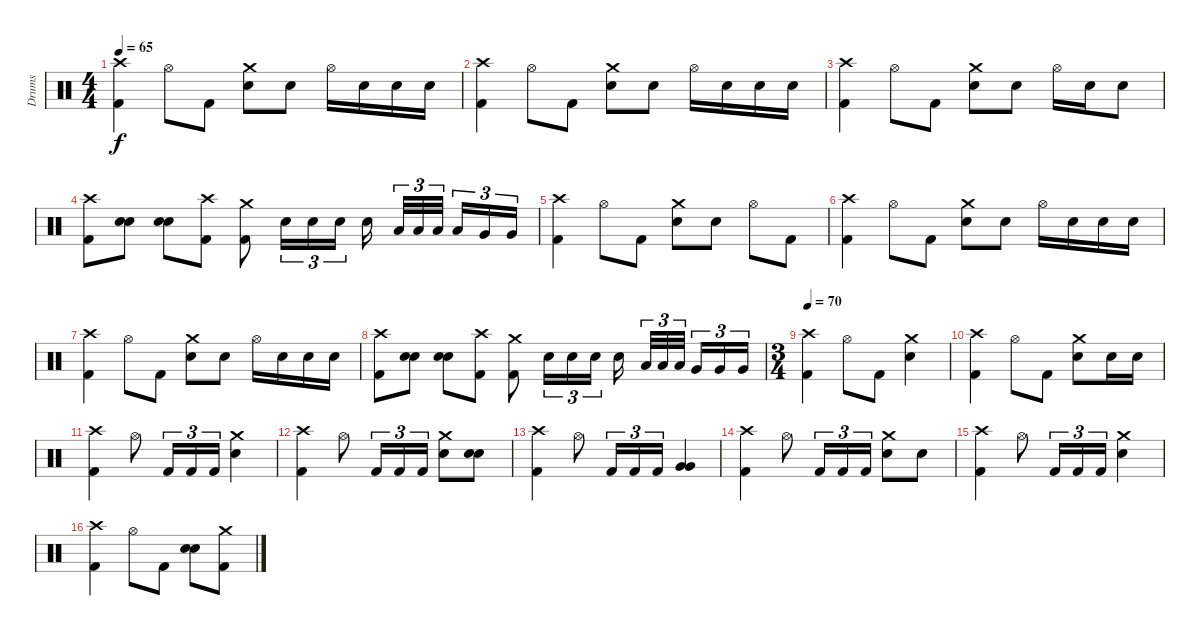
\track ("Drums" "Drums") {instrument percussion}
\staff {score}
\articulation defaults
\ts (4 4)
\tempo 65
\clef neutral
\ks c
("Crash high (hit)" "Kick (hit) 2").4{dy f} "Hi-Hat (open)".8 "Kick (hit) 2".8 ("Crash medium (hit)" "Electric Snare (hit)").8 "Electric Snare (hit)".8 "Hi-Hat (open)".16 "Electric Snare (hit)".16 "Electric Snare (hit)".16 "Electric Snare (hit)".16 |
("Crash high (hit)" "Kick (hit) 2").4 "Hi-Hat (open)".8 "Kick (hit) 2".8 ("Crash medium (hit)" "Electric Snare (hit)").8 "Electric Snare (hit)".8 "Hi-Hat (open)".16 "Electric Snare (hit)".16 "Electric Snare (hit)".16 "Electric Snare (hit)".16 |
("Crash high (hit)" "Kick (hit) 2").4 "Hi-Hat (open)".8 "Kick (hit) 2".8 ("Crash medium (hit)" "Electric Snare (hit)").8 "Electric Snare (hit)".8 "Hi-Hat (open)".16 "Electric Snare (hit)".16 "Electric Snare (hit)".8 |
("Crash high (hit)" "Kick (hit) 2").8 ("Electric Snare (hit)" "Electric Snare (hit)").8{bu 60} ("Electric Snare (hit)" "Electric Snare (hit)").8{bu 60} ("Crash high (hit)" "Kick (hit) 2").8 ("Crash medium (hit)" "Kick (hit) 2").8 "Electric Snare (hit)".16{tu (3 2)} "Electric Snare (hit)".16{tu (3 2)} "Electric Snare (hit)".16{tu (3 2)} "Electric Snare (hit)".16 "Low Tom (hit)".32{tu (3 2)} "Low Tom (hit)".32{tu (3 2)} "Low Tom (hit)".32{tu (3 2)} "Low Tom (hit)".16{tu (3 2)} "Very Low Tom (hit)".16{tu (3 2)} "Very Low Tom (hit)".16{tu (3 2)} |
("Crash high (hit)" "Kick (hit) 2").4 "Hi-Hat (open)".8 "Kick (hit) 2".8 ("Crash medium (hit)" "Electric Snare (hit)").8 "Electric Snare (hit)".8 "Hi-Hat (open)".8 "Kick (hit) 2".8 |
("Crash high (hit)" "Kick (hit) 2").4 "Hi-Hat (open)".8 "Kick (hit) 2".8 ("Crash medium (hit)" "Electric Snare (hit)").8 "Electric Snare (hit)".8 "Hi-Hat (open)".16 "Electric Snare (hit)".16 "Electric Snare (hit)".16 "Electric Snare (hit)".16 |
("Crash high (hit)" "Kick (hit) 2").4 "Hi-Hat (open)".8 "Kick (hit) 2".8 ("Crash medium (hit)" "Electric Snare (hit)").8 "Electric Snare (hit)".8 "Hi-Hat (open)".16 "Electric Snare (hit)".16 "Electric Snare (hit)".16 "Electric Snare (hit)".16 |
("Crash high (hit)" "Kick (hit) 2").8 ("Electric Snare (hit)" "Electric Snare (hit)").8{bu 60} ("Electric Snare (hit)" "Electric Snare (hit)").8{bu 60} ("Crash high (hit)" "Kick (hit) 2").8 ("Crash medium (hit)" "Kick (hit) 2").8 "Electric Snare (hit)".16{tu (3 2)} "Electric Snare (hit)".16{tu (3 2)} "Electric Snare (hit)".16{tu (3 2)} "Electric Snare (hit)".16 "Low Tom (hit)".32{tu (3 2)} "Low Tom (hit)".32{tu (3 2)} "Low Tom (hit)".32{tu (3 2)} "Very Low Tom (hit)".16{tu (3 2)} "Very Low Tom (hit)".16{tu (3 2)} "Very Low Tom (hit)".16{tu (3 2)} |
\ts (3 4)
\tempo 70
("Crash high (hit)" "Kick (hit) 2").4 "Hi-Hat (open)".8 "Kick (hit) 2".8 ("Crash medium (hit)" "Electric Snare (hit)").4 |
("Crash high (hit)" "Kick (hit) 2").4 "Hi-Hat (open)".8 "Kick (hit) 2".8 ("Crash medium (hit)" "Electric Snare (hit)").8 "Electric Snare (hit)".16 "Electric Snare (hit)".16 |
("Crash high (hit)" "Kick (hit) 2").4 "Hi-Hat (open)".8 "Kick (hit) 2".16{tu (3 2)} "Kick (hit) 2".16{tu (3 2)} "Kick (hit) 2".16{tu (3 2)} ("Crash medium (hit)" "Electric Snare (hit)").4 |
("Crash high (hit)" "Kick (hit) 2").4 "Hi-Hat (open)".8 "Kick (hit) 2".16{tu (3 2)} "Kick (hit) 2".16{tu (3 2)} "Kick (hit) 2".16{tu (3 2)} ("Crash medium (hit)" "Electric Snare (hit)").8 ("Electric Snare (hit)" "Electric Snare (hit)").8{bu 60} |
("Crash high (hit)" "Kick (hit) 2").4 "Hi-Hat (open)".8 "Kick (hit) 2".16{tu (3 2)} "Kick (hit) 2".16{tu (3 2)} "Kick (hit) 2".16{tu (3 2)} ("Very Low Tom (hit)" "Very Low Tom (hit)").4 |
("Crash high (hit)" "Kick (hit) 2").4 "Hi-Hat (open)".8 "Kick (hit) 2".16{tu (3 2)} "Kick (hit) 2".16{tu (3 2)} "Kick (hit) 2".16{tu (3 2)} ("Crash medium (hit)" "Electric Snare (hit)").8 "Electric Snare (hit)".8 |
("Crash high (hit)" "Kick (hit) 2").4 "Hi-Hat (open)".8 "Kick (hit) 2".16{tu (3 2)} "Kick (hit) 2".16{tu (3 2)} "Kick (hit) 2".16{tu (3 2)} ("Crash medium (hit)" "Electric Snare (hit)").4 |
("Crash high (hit)" "Kick (hit) 2").4 "Hi-Hat (open)".8 "Kick (hit) 2".8 ("Electric Snare (hit)" "Electric Snare (hit)").8{bu 60} ("Crash medium (hit)" "Kick (hit) 2").8
